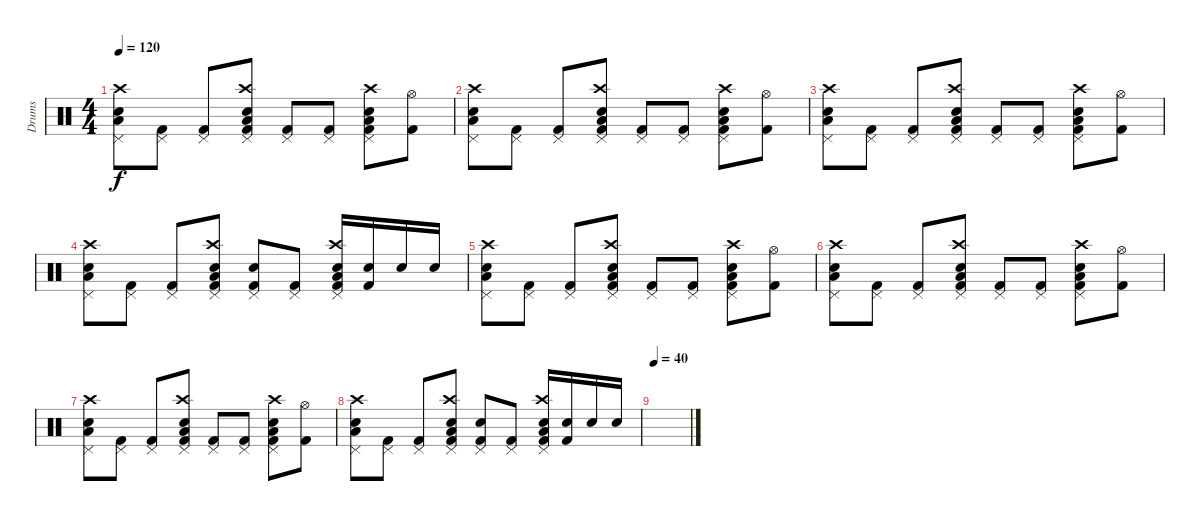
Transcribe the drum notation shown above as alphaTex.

\track ("Drums" "Drums") {instrument percussion}
\staff {score}
\articulation defaults
\ts (4 4)
\tempo 120
\clef neutral
\ks c
("Electric Snare (hit)" "Low Tom (hit)" "Pedal Hi-Hat (hit)" "Crash high (hit)").8{dy f volume 15} ("Kick (hit) 2" "Pedal Hi-Hat (hit)").8 ("Kick (hit) 2" "Pedal Hi-Hat (hit)").8 ("Kick (hit) 2" "Electric Snare (hit)" "Low Tom (hit)" "Pedal Hi-Hat (hit)" "Crash high (hit)").8 ("Kick (hit) 2" "Pedal Hi-Hat (hit)").8 ("Kick (hit) 2" "Pedal Hi-Hat (hit)").8 ("Kick (hit) 2" "Electric Snare (hit)" "Low Tom (hit)" "Pedal Hi-Hat (hit)" "Crash high (hit)").8 ("Kick (hit) 2" "Hi-Hat (open)").8 |
("Electric Snare (hit)" "Low Tom (hit)" "Pedal Hi-Hat (hit)" "Crash high (hit)").8 ("Kick (hit) 2" "Pedal Hi-Hat (hit)").8 ("Kick (hit) 2" "Pedal Hi-Hat (hit)").8 ("Kick (hit) 2" "Electric Snare (hit)" "Low Tom (hit)" "Pedal Hi-Hat (hit)" "Crash high (hit)").8 ("Kick (hit) 2" "Pedal Hi-Hat (hit)").8 ("Kick (hit) 2" "Pedal Hi-Hat (hit)").8 ("Kick (hit) 2" "Electric Snare (hit)" "Low Tom (hit)" "Pedal Hi-Hat (hit)" "Crash high (hit)").8 ("Kick (hit) 2" "Hi-Hat (open)").8 |
("Electric Snare (hit)" "Low Tom (hit)" "Pedal Hi-Hat (hit)" "Crash high (hit)").8 ("Kick (hit) 2" "Pedal Hi-Hat (hit)").8 ("Kick (hit) 2" "Pedal Hi-Hat (hit)").8 ("Kick (hit) 2" "Electric Snare (hit)" "Low Tom (hit)" "Pedal Hi-Hat (hit)" "Crash high (hit)").8 ("Kick (hit) 2" "Pedal Hi-Hat (hit)").8 ("Kick (hit) 2" "Pedal Hi-Hat (hit)").8 ("Kick (hit) 2" "Electric Snare (hit)" "Low Tom (hit)" "Pedal Hi-Hat (hit)" "Crash high (hit)").8 ("Kick (hit) 2" "Hi-Hat (open)").8 |
("Electric Snare (hit)" "Low Tom (hit)" "Pedal Hi-Hat (hit)" "Crash high (hit)").8 ("Kick (hit) 2" "Pedal Hi-Hat (hit)").8 ("Kick (hit) 2" "Pedal Hi-Hat (hit)").8 ("Kick (hit) 2" "Electric Snare (hit)" "Low Tom (hit)" "Pedal Hi-Hat (hit)" "Crash high (hit)").8 ("Kick (hit) 2" "Pedal Hi-Hat (hit)" "Electric Snare (hit)").8 ("Kick (hit) 2" "Pedal Hi-Hat (hit)").8 ("Kick (hit) 2" "Electric Snare (hit)" "Low Tom (hit)" "Pedal Hi-Hat (hit)" "Crash high (hit)").16 ("Kick (hit) 2" "Electric Snare (hit)").16 "Electric Snare (hit)".16 "Electric Snare (hit)".16 |
("Electric Snare (hit)" "Low Tom (hit)" "Pedal Hi-Hat (hit)" "Crash high (hit)").8 ("Kick (hit) 2" "Pedal Hi-Hat (hit)").8 ("Kick (hit) 2" "Pedal Hi-Hat (hit)").8 ("Kick (hit) 2" "Electric Snare (hit)" "Low Tom (hit)" "Pedal Hi-Hat (hit)" "Crash high (hit)").8 ("Kick (hit) 2" "Pedal Hi-Hat (hit)").8 ("Kick (hit) 2" "Pedal Hi-Hat (hit)").8 ("Kick (hit) 2" "Electric Snare (hit)" "Low Tom (hit)" "Pedal Hi-Hat (hit)" "Crash high (hit)").8 ("Kick (hit) 2" "Hi-Hat (open)").8 |
("Electric Snare (hit)" "Low Tom (hit)" "Pedal Hi-Hat (hit)" "Crash high (hit)").8 ("Kick (hit) 2" "Pedal Hi-Hat (hit)").8 ("Kick (hit) 2" "Pedal Hi-Hat (hit)").8 ("Kick (hit) 2" "Electric Snare (hit)" "Low Tom (hit)" "Pedal Hi-Hat (hit)" "Crash high (hit)").8 ("Kick (hit) 2" "Pedal Hi-Hat (hit)").8 ("Kick (hit) 2" "Pedal Hi-Hat (hit)").8 ("Kick (hit) 2" "Electric Snare (hit)" "Low Tom (hit)" "Pedal Hi-Hat (hit)" "Crash high (hit)").8 ("Kick (hit) 2" "Hi-Hat (open)").8 |
("Electric Snare (hit)" "Low Tom (hit)" "Pedal Hi-Hat (hit)" "Crash high (hit)").8 ("Kick (hit) 2" "Pedal Hi-Hat (hit)").8 ("Kick (hit) 2" "Pedal Hi-Hat (hit)").8 ("Kick (hit) 2" "Electric Snare (hit)" "Low Tom (hit)" "Pedal Hi-Hat (hit)" "Crash high (hit)").8 ("Kick (hit) 2" "Pedal Hi-Hat (hit)").8 ("Kick (hit) 2" "Pedal Hi-Hat (hit)").8 ("Kick (hit) 2" "Electric Snare (hit)" "Low Tom (hit)" "Pedal Hi-Hat (hit)" "Crash high (hit)").8 ("Kick (hit) 2" "Hi-Hat (open)").8 |
("Electric Snare (hit)" "Low Tom (hit)" "Pedal Hi-Hat (hit)" "Crash high (hit)").8 ("Kick (hit) 2" "Pedal Hi-Hat (hit)").8 ("Kick (hit) 2" "Pedal Hi-Hat (hit)").8 ("Kick (hit) 2" "Electric Snare (hit)" "Low Tom (hit)" "Pedal Hi-Hat (hit)" "Crash high (hit)").8 ("Kick (hit) 2" "Pedal Hi-Hat (hit)" "Electric Snare (hit)").8 ("Kick (hit) 2" "Pedal Hi-Hat (hit)").8 ("Kick (hit) 2" "Electric Snare (hit)" "Low Tom (hit)" "Pedal Hi-Hat (hit)" "Crash high (hit)").16 ("Kick (hit) 2" "Electric Snare (hit)").16 "Electric Snare (hit)".16 "Electric Snare (hit)".16 |
\tempo 40
